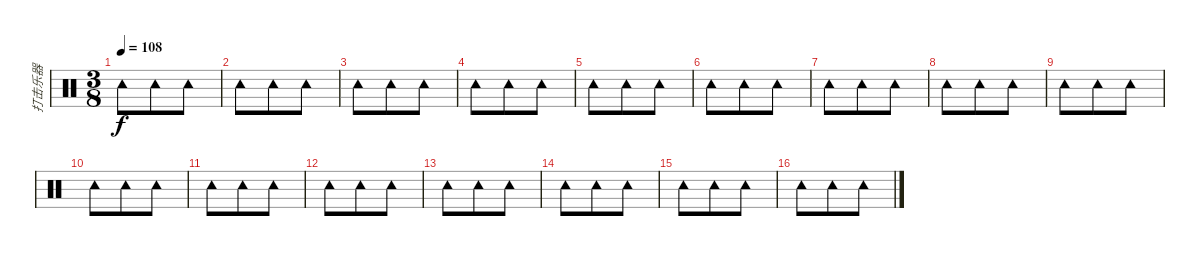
\track ("打击乐器" "打击乐器") {instrument percussion}
\staff {score}
\articulation defaults
\ts (3 8)
\tempo 108
\clef neutral
\ks c "Tambourine (hit)".8{dy f} "Tambourine (hit)".8 "Tambourine (hit)".8
|
"Tambourine (hit)".8 "Tambourine (hit)".8 "Tambourine (hit)".8 |
"Tambourine (hit)".8 "Tambourine (hit)".8 "Tambourine (hit)".8 |
"Tambourine (hit)".8 "Tambourine (hit)".8 "Tambourine (hit)".8 |
"Tambourine (hit)".8 "Tambourine (hit)".8 "Tambourine (hit)".8 |
"Tambourine (hit)".8 "Tambourine (hit)".8 "Tambourine (hit)".8 |
"Tambourine (hit)".8 "Tambourine (hit)".8 "Tambourine (hit)".8 |
"Tambourine (hit)".8 "Tambourine (hit)".8 "Tambourine (hit)".8 |
"Tambourine (hit)".8 "Tambourine (hit)".8 "Tambourine (hit)".8 |
"Tambourine (hit)".8 "Tambourine (hit)".8 "Tambourine (hit)".8 |
"Tambourine (hit)".8 "Tambourine (hit)".8 "Tambourine (hit)".8 |
"Tambourine (hit)".8 "Tambourine (hit)".8 "Tambourine (hit)".8 |
"Tambourine (hit)".8 "Tambourine (hit)".8 "Tambourine (hit)".8 |
"Tambourine (hit)".8 "Tambourine (hit)".8 "Tambourine (hit)".8 |
"Tambourine (hit)".8 "Tambourine (hit)".8 "Tambourine (hit)".8 |
"Tambourine (hit)".8 "Tambourine (hit)".8 "Tambourine (hit)".8
